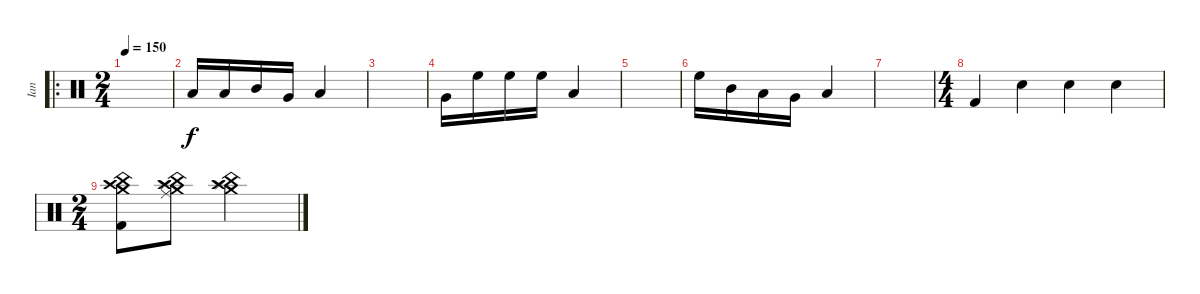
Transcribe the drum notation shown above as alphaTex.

\track ("Ian" "Ian") {instrument percussion}
\staff {score}
\articulation defaults
\ro
\ts (2 4)
\tempo 150
\clef neutral
\ks c
|
"Low Tom (hit)".16 "Low Floor Tom (hit)".16 "Mid Tom (hit)".16 "Very Low Tom (hit)".16 "Low Floor Tom (hit)".4 |
|
"Very Low Tom (hit)".16 "High Floor Tom (hit)".16 "High Floor Tom (hit)".16 "High Floor Tom (hit)".16 "Low Floor Tom (hit)".4 |
|
"High Floor Tom (hit)".16 "Mid Tom (hit)".16 "Low Tom (hit)".16 "Very Low Tom (hit)".16 "Low Floor Tom (hit)".4 |
|
\ts (4 4)
"Kick (hit) 2".4 "Snare (hit) 2".4 "Snare (hit) 2".4 "Snare (hit) 2".4 |
\ts (2 4)
("Kick (hit) 2" "Crash high (hit)" "China (hit)" "Crash medium (hit)").8 ("Splash (hit)" "China (hit)" "Ride (middle)" "Crash high (hit)" "Crash medium (hit)").8 ("Splash (hit)" "Crash medium (hit)" "China (hit)" "Crash high (hit)").4
